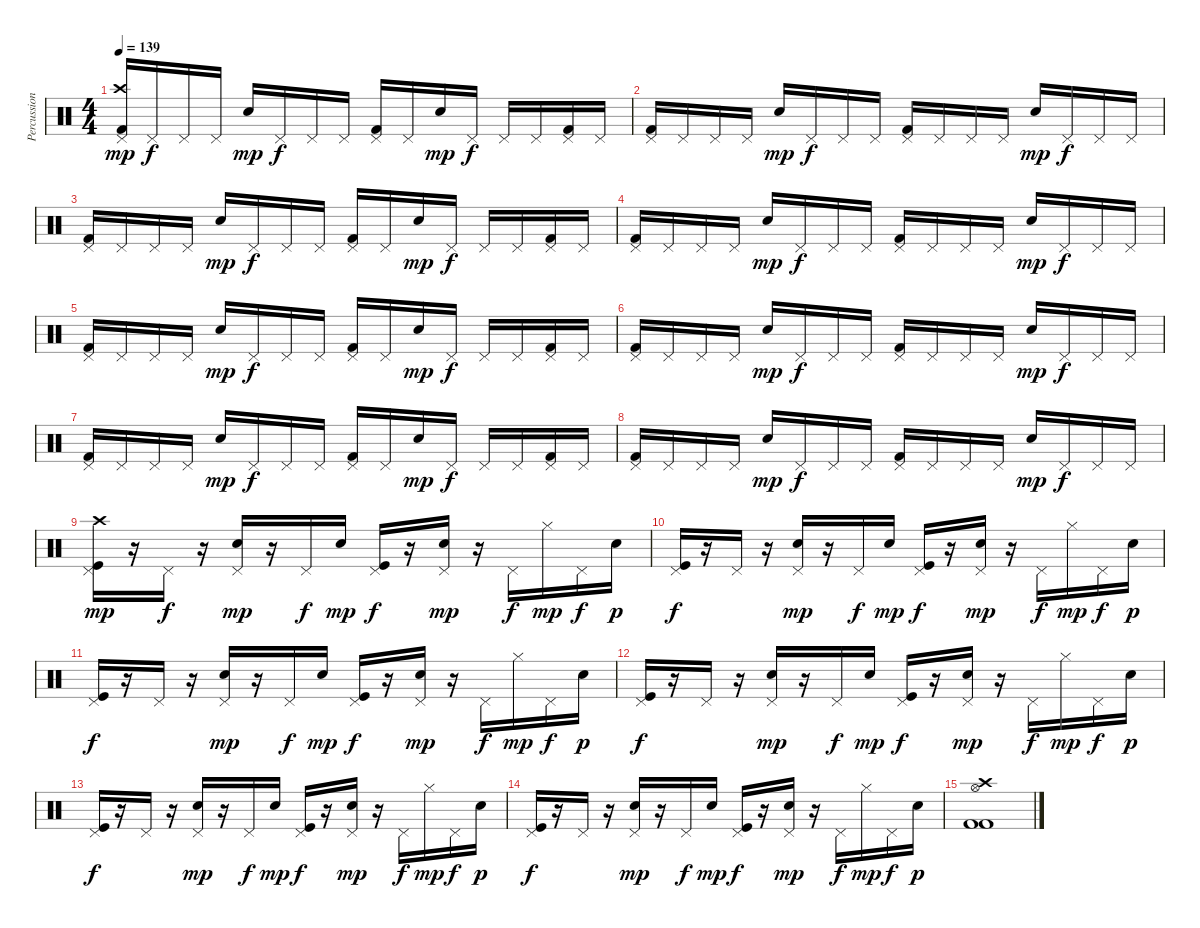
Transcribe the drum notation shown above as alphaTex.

\track ("Percussion" "Percussion") {instrument percussion}
\staff {score}
\articulation defaults
\ts (4 4)
\tempo 139
\clef neutral
\ks c
("Kick (hit) 2" "Crash high (hit)" "Pedal Hi-Hat (hit)").16{dy mp} "Pedal Hi-Hat (hit)".16{dy f} "Pedal Hi-Hat (hit)".16 "Pedal Hi-Hat (hit)".16 "Electric Snare (hit)".16{dy mp} "Pedal Hi-Hat (hit)".16{dy f} "Pedal Hi-Hat (hit)".16 "Pedal Hi-Hat (hit)".16 ("Kick (hit) 2" "Pedal Hi-Hat (hit)").16 "Pedal Hi-Hat (hit)".16 "Electric Snare (hit)".16{dy mp} "Pedal Hi-Hat (hit)".16{dy f} "Pedal Hi-Hat (hit)".16 "Pedal Hi-Hat (hit)".16 ("Kick (hit) 2" "Pedal Hi-Hat (hit)").16 "Pedal Hi-Hat (hit)".16 |
("Kick (hit) 2" "Pedal Hi-Hat (hit)").16 "Pedal Hi-Hat (hit)".16 "Pedal Hi-Hat (hit)".16 "Pedal Hi-Hat (hit)".16 "Electric Snare (hit)".16{dy mp} "Pedal Hi-Hat (hit)".16{dy f} "Pedal Hi-Hat (hit)".16 "Pedal Hi-Hat (hit)".16 ("Kick (hit) 2" "Pedal Hi-Hat (hit)").16 "Pedal Hi-Hat (hit)".16 "Pedal Hi-Hat (hit)".16 "Pedal Hi-Hat (hit)".16 "Electric Snare (hit)".16{dy mp} "Pedal Hi-Hat (hit)".16{dy f} "Pedal Hi-Hat (hit)".16 "Pedal Hi-Hat (hit)".16 |
("Kick (hit) 2" "Pedal Hi-Hat (hit)").16 "Pedal Hi-Hat (hit)".16 "Pedal Hi-Hat (hit)".16 "Pedal Hi-Hat (hit)".16 "Electric Snare (hit)".16{dy mp} "Pedal Hi-Hat (hit)".16{dy f} "Pedal Hi-Hat (hit)".16 "Pedal Hi-Hat (hit)".16 ("Kick (hit) 2" "Pedal Hi-Hat (hit)").16 "Pedal Hi-Hat (hit)".16 "Electric Snare (hit)".16{dy mp} "Pedal Hi-Hat (hit)".16{dy f} "Pedal Hi-Hat (hit)".16 "Pedal Hi-Hat (hit)".16 ("Kick (hit) 2" "Pedal Hi-Hat (hit)").16 "Pedal Hi-Hat (hit)".16 |
("Kick (hit) 2" "Pedal Hi-Hat (hit)").16 "Pedal Hi-Hat (hit)".16 "Pedal Hi-Hat (hit)".16 "Pedal Hi-Hat (hit)".16 "Electric Snare (hit)".16{dy mp} "Pedal Hi-Hat (hit)".16{dy f} "Pedal Hi-Hat (hit)".16 "Pedal Hi-Hat (hit)".16 ("Kick (hit) 2" "Pedal Hi-Hat (hit)").16 "Pedal Hi-Hat (hit)".16 "Pedal Hi-Hat (hit)".16 "Pedal Hi-Hat (hit)".16 "Electric Snare (hit)".16{dy mp} "Pedal Hi-Hat (hit)".16{dy f} "Pedal Hi-Hat (hit)".16 "Pedal Hi-Hat (hit)".16 |
("Kick (hit) 2" "Pedal Hi-Hat (hit)").16 "Pedal Hi-Hat (hit)".16 "Pedal Hi-Hat (hit)".16 "Pedal Hi-Hat (hit)".16 "Electric Snare (hit)".16{dy mp} "Pedal Hi-Hat (hit)".16{dy f} "Pedal Hi-Hat (hit)".16 "Pedal Hi-Hat (hit)".16 ("Kick (hit) 2" "Pedal Hi-Hat (hit)").16 "Pedal Hi-Hat (hit)".16 "Electric Snare (hit)".16{dy mp} "Pedal Hi-Hat (hit)".16{dy f} "Pedal Hi-Hat (hit)".16 "Pedal Hi-Hat (hit)".16 ("Kick (hit) 2" "Pedal Hi-Hat (hit)").16 "Pedal Hi-Hat (hit)".16 |
("Kick (hit) 2" "Pedal Hi-Hat (hit)").16 "Pedal Hi-Hat (hit)".16 "Pedal Hi-Hat (hit)".16 "Pedal Hi-Hat (hit)".16 "Electric Snare (hit)".16{dy mp} "Pedal Hi-Hat (hit)".16{dy f} "Pedal Hi-Hat (hit)".16 "Pedal Hi-Hat (hit)".16 ("Kick (hit) 2" "Pedal Hi-Hat (hit)").16 "Pedal Hi-Hat (hit)".16 "Pedal Hi-Hat (hit)".16 "Pedal Hi-Hat (hit)".16 "Electric Snare (hit)".16{dy mp} "Pedal Hi-Hat (hit)".16{dy f} "Pedal Hi-Hat (hit)".16 "Pedal Hi-Hat (hit)".16 |
("Kick (hit) 2" "Pedal Hi-Hat (hit)").16 "Pedal Hi-Hat (hit)".16 "Pedal Hi-Hat (hit)".16 "Pedal Hi-Hat (hit)".16 "Electric Snare (hit)".16{dy mp} "Pedal Hi-Hat (hit)".16{dy f} "Pedal Hi-Hat (hit)".16 "Pedal Hi-Hat (hit)".16 ("Kick (hit) 2" "Pedal Hi-Hat (hit)").16 "Pedal Hi-Hat (hit)".16 "Electric Snare (hit)".16{dy mp} "Pedal Hi-Hat (hit)".16{dy f} "Pedal Hi-Hat (hit)".16 "Pedal Hi-Hat (hit)".16 ("Kick (hit) 2" "Pedal Hi-Hat (hit)").16 "Pedal Hi-Hat (hit)".16 |
("Kick (hit) 2" "Pedal Hi-Hat (hit)").16 "Pedal Hi-Hat (hit)".16 "Pedal Hi-Hat (hit)".16 "Pedal Hi-Hat (hit)".16 "Electric Snare (hit)".16{dy mp} "Pedal Hi-Hat (hit)".16{dy f} "Pedal Hi-Hat (hit)".16 "Pedal Hi-Hat (hit)".16 ("Kick (hit) 2" "Pedal Hi-Hat (hit)").16 "Pedal Hi-Hat (hit)".16 "Pedal Hi-Hat (hit)".16 "Pedal Hi-Hat (hit)".16 "Electric Snare (hit)".16{dy mp} "Pedal Hi-Hat (hit)".16{dy f} "Pedal Hi-Hat (hit)".16 "Pedal Hi-Hat (hit)".16 |
("Pedal Hi-Hat (hit)" "Crash high (hit)" "Kick (hit)").16{dy mp} r.16 "Pedal Hi-Hat (hit)".16{dy f} r.16 ("Pedal Hi-Hat (hit)" "Electric Snare (hit)").16{dy mp} r.16 "Pedal Hi-Hat (hit)".16{dy f} "Electric Snare (hit)".16{dy mp} ("Pedal Hi-Hat (hit)" "Kick (hit)").16{dy f} r.16 ("Pedal Hi-Hat (hit)" "Electric Snare (hit)").16{dy mp} r.16 "Pedal Hi-Hat (hit)".16{dy f} "Hi-Hat (closed)".16{dy mp} "Pedal Hi-Hat (hit)".16{dy f} "Electric Snare (hit)".16{dy p} |
("Pedal Hi-Hat (hit)" "Kick (hit)").16{dy f} r.16 "Pedal Hi-Hat (hit)".16 r.16 ("Pedal Hi-Hat (hit)" "Electric Snare (hit)").16{dy mp} r.16 "Pedal Hi-Hat (hit)".16{dy f} "Electric Snare (hit)".16{dy mp} ("Pedal Hi-Hat (hit)" "Kick (hit)").16{dy f} r.16 ("Pedal Hi-Hat (hit)" "Electric Snare (hit)").16{dy mp} r.16 "Pedal Hi-Hat (hit)".16{dy f} "Hi-Hat (closed)".16{dy mp} "Pedal Hi-Hat (hit)".16{dy f} "Electric Snare (hit)".16{dy p} |
("Pedal Hi-Hat (hit)" "Kick (hit)").16{dy f} r.16 "Pedal Hi-Hat (hit)".16 r.16 ("Pedal Hi-Hat (hit)" "Electric Snare (hit)").16{dy mp} r.16 "Pedal Hi-Hat (hit)".16{dy f} "Electric Snare (hit)".16{dy mp} ("Pedal Hi-Hat (hit)" "Kick (hit)").16{dy f} r.16 ("Pedal Hi-Hat (hit)" "Electric Snare (hit)").16{dy mp} r.16 "Pedal Hi-Hat (hit)".16{dy f} "Hi-Hat (closed)".16{dy mp} "Pedal Hi-Hat (hit)".16{dy f} "Electric Snare (hit)".16{dy p} |
("Pedal Hi-Hat (hit)" "Kick (hit)").16{dy f} r.16 "Pedal Hi-Hat (hit)".16 r.16 ("Pedal Hi-Hat (hit)" "Electric Snare (hit)").16{dy mp} r.16 "Pedal Hi-Hat (hit)".16{dy f} "Electric Snare (hit)".16{dy mp} ("Pedal Hi-Hat (hit)" "Kick (hit)").16{dy f} r.16 ("Pedal Hi-Hat (hit)" "Electric Snare (hit)").16{dy mp} r.16 "Pedal Hi-Hat (hit)".16{dy f} "Hi-Hat (closed)".16{dy mp} "Pedal Hi-Hat (hit)".16{dy f} "Electric Snare (hit)".16{dy p} |
("Pedal Hi-Hat (hit)" "Kick (hit)").16{dy f} r.16 "Pedal Hi-Hat (hit)".16 r.16 ("Pedal Hi-Hat (hit)" "Electric Snare (hit)").16{dy mp} r.16 "Pedal Hi-Hat (hit)".16{dy f} "Electric Snare (hit)".16{dy mp} ("Pedal Hi-Hat (hit)" "Kick (hit)").16{dy f} r.16 ("Pedal Hi-Hat (hit)" "Electric Snare (hit)").16{dy mp} r.16 "Pedal Hi-Hat (hit)".16{dy f} "Hi-Hat (closed)".16{dy mp} "Pedal Hi-Hat (hit)".16{dy f} "Electric Snare (hit)".16{dy p} |
("Pedal Hi-Hat (hit)" "Kick (hit)").16{dy f} r.16 "Pedal Hi-Hat (hit)".16 r.16 ("Pedal Hi-Hat (hit)" "Electric Snare (hit)").16{dy mp} r.16 "Pedal Hi-Hat (hit)".16{dy f} "Electric Snare (hit)".16{dy mp} ("Pedal Hi-Hat (hit)" "Kick (hit)").16{dy f} r.16 ("Pedal Hi-Hat (hit)" "Electric Snare (hit)").16{dy mp} r.16 "Pedal Hi-Hat (hit)".16{dy f} "Hi-Hat (closed)".16{dy mp} "Pedal Hi-Hat (hit)".16{dy f} "Electric Snare (hit)".16{dy p} |
("Hi-Hat (open)" "Crash high (hit)" "Kick (hit) 2" "Kick (hit) 2").1
